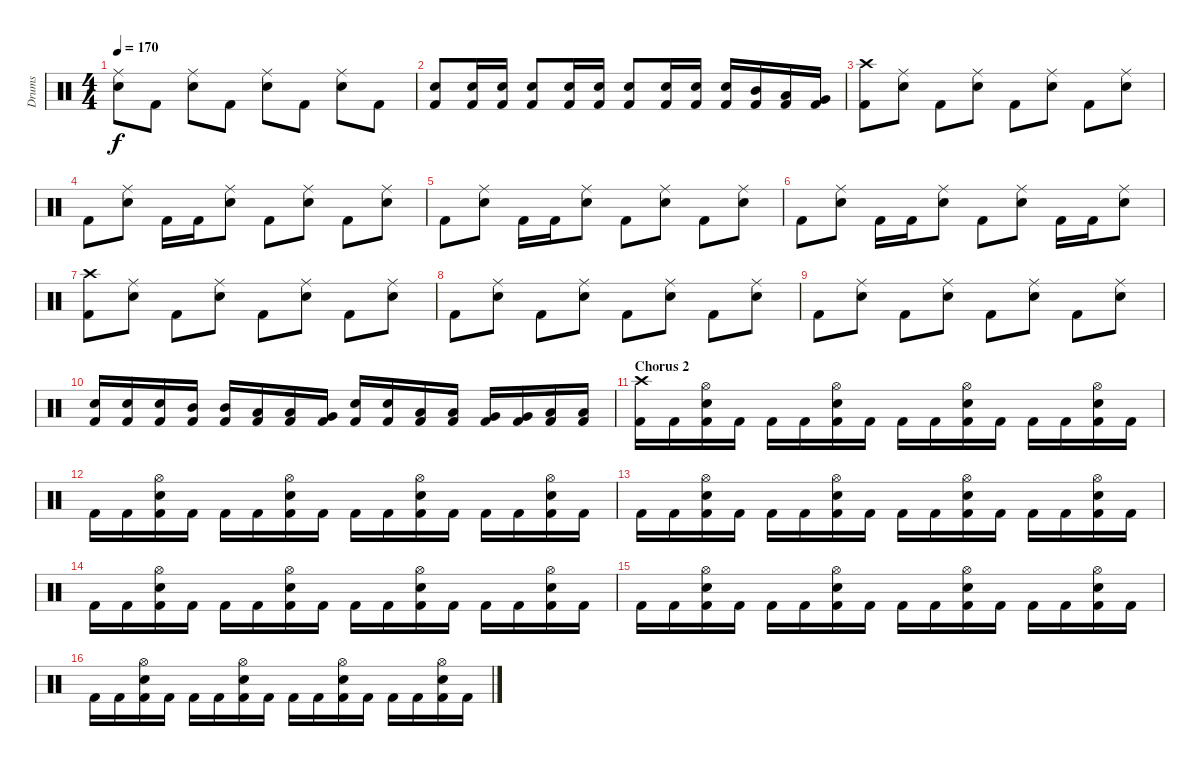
\track ("Drums" "Drums") {instrument percussion}
\staff {score}
\articulation defaults
\ts (4 4)
\tempo 170
\clef neutral
\ks c
("Ride (middle)" "Snare (hit) 2").8{dy f} "Kick (hit) 2".8 ("Ride (middle)" "Snare (hit) 2").8 "Kick (hit) 2".8 ("Ride (middle)" "Snare (hit) 2").8 "Kick (hit) 2".8 ("Ride (middle)" "Snare (hit) 2").8 "Kick (hit) 2".8 |
("Snare (hit) 2" "Kick (hit) 2").8 ("Snare (hit) 2" "Kick (hit) 2").16 ("Snare (hit) 2" "Kick (hit) 2").16 ("Snare (hit) 2" "Kick (hit) 2").8 ("Snare (hit) 2" "Kick (hit) 2").16 ("Snare (hit) 2" "Kick (hit) 2").16 ("Snare (hit) 2" "Kick (hit) 2").8 ("Snare (hit) 2" "Kick (hit) 2").16 ("Snare (hit) 2" "Kick (hit) 2").16 ("Snare (hit) 2" "Kick (hit) 2").16 ("Mid Tom (hit)" "Kick (hit) 2").16 ("Low Tom (hit)" "Kick (hit) 2").16 ("Very Low Tom (hit)" "Kick (hit) 2").16 |
("Crash high (hit)" "Kick (hit) 2").8 ("Ride (middle)" "Snare (hit) 2").8 "Kick (hit) 2".8 ("Ride (middle)" "Snare (hit) 2").8 "Kick (hit) 2".8 ("Ride (middle)" "Snare (hit) 2").8 "Kick (hit) 2".8 ("Ride (middle)" "Snare (hit) 2").8 |
"Kick (hit) 2".8 ("Ride (middle)" "Snare (hit) 2").8 "Kick (hit) 2".16 "Kick (hit) 2".16 ("Ride (middle)" "Snare (hit) 2").8 "Kick (hit) 2".8 ("Ride (middle)" "Snare (hit) 2").8 "Kick (hit) 2".8 ("Ride (middle)" "Snare (hit) 2").8 |
"Kick (hit) 2".8 ("Ride (middle)" "Snare (hit) 2").8 "Kick (hit) 2".16 "Kick (hit) 2".16 ("Ride (middle)" "Snare (hit) 2").8 "Kick (hit) 2".8 ("Ride (middle)" "Snare (hit) 2").8 "Kick (hit) 2".8 ("Ride (middle)" "Snare (hit) 2").8 |
"Kick (hit) 2".8 ("Ride (middle)" "Snare (hit) 2").8 "Kick (hit) 2".16 "Kick (hit) 2".16 ("Ride (middle)" "Snare (hit) 2").8 "Kick (hit) 2".8 ("Ride (middle)" "Snare (hit) 2").8 "Kick (hit) 2".16 "Kick (hit) 2".16 ("Ride (middle)" "Snare (hit) 2").8 |
("Crash high (hit)" "Kick (hit) 2").8 ("Ride (middle)" "Snare (hit) 2").8 "Kick (hit) 2".8 ("Ride (middle)" "Snare (hit) 2").8 "Kick (hit) 2".8 ("Ride (middle)" "Snare (hit) 2").8 "Kick (hit) 2".8 ("Ride (middle)" "Snare (hit) 2").8 |
"Kick (hit) 2".8 ("Ride (middle)" "Snare (hit) 2").8 "Kick (hit) 2".8 ("Ride (middle)" "Snare (hit) 2").8 "Kick (hit) 2".8 ("Ride (middle)" "Snare (hit) 2").8 "Kick (hit) 2".8 ("Ride (middle)" "Snare (hit) 2").8 |
"Kick (hit) 2".8 ("Ride (middle)" "Snare (hit) 2").8 "Kick (hit) 2".8 ("Ride (middle)" "Snare (hit) 2").8 "Kick (hit) 2".8 ("Ride (middle)" "Snare (hit) 2").8 "Kick (hit) 2".8 ("Ride (middle)" "Snare (hit) 2").8 |
("Snare (hit) 2" "Kick (hit) 2").16 ("Snare (hit) 2" "Kick (hit) 2").16 ("Snare (hit) 2" "Kick (hit) 2").16 ("Mid Tom (hit)" "Kick (hit) 2").16 ("Mid Tom (hit)" "Kick (hit) 2").16 ("Low Tom (hit)" "Kick (hit) 2").16 ("Low Tom (hit)" "Kick (hit) 2").16 ("Very Low Tom (hit)" "Kick (hit) 2").16 ("Snare (hit) 2" "Kick (hit) 2").16 ("Snare (hit) 2" "Kick (hit) 2").16 ("Low Tom (hit)" "Kick (hit) 2").16 ("Low Tom (hit)" "Kick (hit) 2").16 ("Very Low Tom (hit)" "Kick (hit) 2").16 ("Very Low Tom (hit)" "Kick (hit) 2").16 ("Low Floor Tom (hit)" "Kick (hit) 2").16 ("Low Floor Tom (hit)" "Kick (hit) 2").16 |
\section ("" "Chorus 2")
("Crash high (hit)" "Kick (hit) 2").16 "Kick (hit) 2".16 ("Hi-Hat (open)" "Snare (hit) 2" "Kick (hit) 2").16 "Kick (hit) 2".16 "Kick (hit) 2".16 "Kick (hit) 2".16 ("Hi-Hat (open)" "Snare (hit) 2" "Kick (hit) 2").16 "Kick (hit) 2".16 "Kick (hit) 2".16 "Kick (hit) 2".16 ("Hi-Hat (open)" "Snare (hit) 2" "Kick (hit) 2").16 "Kick (hit) 2".16 "Kick (hit) 2".16 "Kick (hit) 2".16 ("Hi-Hat (open)" "Snare (hit) 2" "Kick (hit) 2").16 "Kick (hit) 2".16 |
"Kick (hit) 2".16 "Kick (hit) 2".16 ("Hi-Hat (open)" "Snare (hit) 2" "Kick (hit) 2").16 "Kick (hit) 2".16 "Kick (hit) 2".16 "Kick (hit) 2".16 ("Hi-Hat (open)" "Snare (hit) 2" "Kick (hit) 2").16 "Kick (hit) 2".16 "Kick (hit) 2".16 "Kick (hit) 2".16 ("Hi-Hat (open)" "Snare (hit) 2" "Kick (hit) 2").16 "Kick (hit) 2".16 "Kick (hit) 2".16 "Kick (hit) 2".16 ("Hi-Hat (open)" "Snare (hit) 2" "Kick (hit) 2").16 "Kick (hit) 2".16 |
"Kick (hit) 2".16 "Kick (hit) 2".16 ("Hi-Hat (open)" "Snare (hit) 2" "Kick (hit) 2").16 "Kick (hit) 2".16 "Kick (hit) 2".16 "Kick (hit) 2".16 ("Hi-Hat (open)" "Snare (hit) 2" "Kick (hit) 2").16 "Kick (hit) 2".16 "Kick (hit) 2".16 "Kick (hit) 2".16 ("Hi-Hat (open)" "Snare (hit) 2" "Kick (hit) 2").16 "Kick (hit) 2".16 "Kick (hit) 2".16 "Kick (hit) 2".16 ("Hi-Hat (open)" "Snare (hit) 2" "Kick (hit) 2").16 "Kick (hit) 2".16 |
"Kick (hit) 2".16 "Kick (hit) 2".16 ("Hi-Hat (open)" "Snare (hit) 2" "Kick (hit) 2").16 "Kick (hit) 2".16 "Kick (hit) 2".16 "Kick (hit) 2".16 ("Hi-Hat (open)" "Snare (hit) 2" "Kick (hit) 2").16 "Kick (hit) 2".16 "Kick (hit) 2".16 "Kick (hit) 2".16 ("Hi-Hat (open)" "Snare (hit) 2" "Kick (hit) 2").16 "Kick (hit) 2".16 "Kick (hit) 2".16 "Kick (hit) 2".16 ("Hi-Hat (open)" "Snare (hit) 2" "Kick (hit) 2").16 "Kick (hit) 2".16 |
"Kick (hit) 2".16 "Kick (hit) 2".16 ("Hi-Hat (open)" "Snare (hit) 2" "Kick (hit) 2").16 "Kick (hit) 2".16 "Kick (hit) 2".16 "Kick (hit) 2".16 ("Hi-Hat (open)" "Snare (hit) 2" "Kick (hit) 2").16 "Kick (hit) 2".16 "Kick (hit) 2".16 "Kick (hit) 2".16 ("Hi-Hat (open)" "Snare (hit) 2" "Kick (hit) 2").16 "Kick (hit) 2".16 "Kick (hit) 2".16 "Kick (hit) 2".16 ("Hi-Hat (open)" "Snare (hit) 2" "Kick (hit) 2").16 "Kick (hit) 2".16 |
"Kick (hit) 2".16 "Kick (hit) 2".16 ("Hi-Hat (open)" "Snare (hit) 2" "Kick (hit) 2").16 "Kick (hit) 2".16 "Kick (hit) 2".16 "Kick (hit) 2".16 ("Hi-Hat (open)" "Snare (hit) 2" "Kick (hit) 2").16 "Kick (hit) 2".16 "Kick (hit) 2".16 "Kick (hit) 2".16 ("Hi-Hat (open)" "Snare (hit) 2" "Kick (hit) 2").16 "Kick (hit) 2".16 "Kick (hit) 2".16 "Kick (hit) 2".16 ("Hi-Hat (open)" "Snare (hit) 2" "Kick (hit) 2").16 "Kick (hit) 2".16
